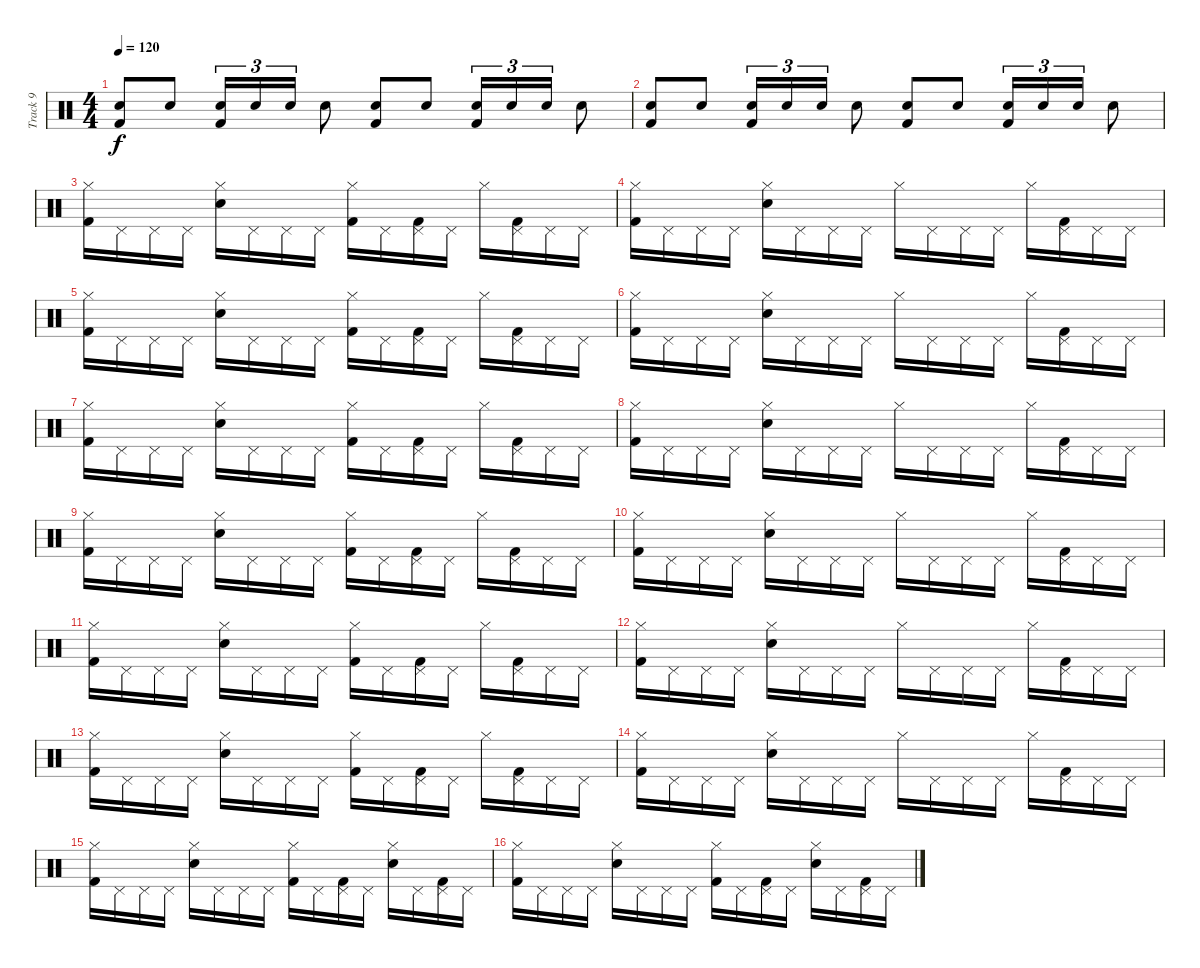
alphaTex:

\track ("Track 9" "Track 9") {instrument percussion}
\staff {score}
\articulation defaults
\ts (4 4)
\tempo 120
\clef neutral
\ks c
("Electric Snare (hit)" "Kick (hit) 2").8{dy f} "Electric Snare (hit)".8 ("Electric Snare (hit)" "Kick (hit) 2").16{tu (3 2)} "Electric Snare (hit)".16{tu (3 2)} "Electric Snare (hit)".16{tu (3 2)} "Electric Snare (hit)".8 ("Electric Snare (hit)" "Kick (hit) 2").8 "Electric Snare (hit)".8 ("Electric Snare (hit)" "Kick (hit) 2").16{tu (3 2)} "Electric Snare (hit)".16{tu (3 2)} "Electric Snare (hit)".16{tu (3 2)} "Electric Snare (hit)".8 |
("Electric Snare (hit)" "Kick (hit) 2").8 "Electric Snare (hit)".8 ("Electric Snare (hit)" "Kick (hit) 2").16{tu (3 2)} "Electric Snare (hit)".16{tu (3 2)} "Electric Snare (hit)".16{tu (3 2)} "Electric Snare (hit)".8 ("Electric Snare (hit)" "Kick (hit) 2").8 "Electric Snare (hit)".8 ("Electric Snare (hit)" "Kick (hit) 2").16{tu (3 2)} "Electric Snare (hit)".16{tu (3 2)} "Electric Snare (hit)".16{tu (3 2)} "Electric Snare (hit)".8 |
("Hi-Hat (closed)" "Kick (hit) 2").16 "Pedal Hi-Hat (hit)".16 "Pedal Hi-Hat (hit)".16 "Pedal Hi-Hat (hit)".16 ("Hi-Hat (closed)" "Electric Snare (hit)").16 "Pedal Hi-Hat (hit)".16 "Pedal Hi-Hat (hit)".16 "Pedal Hi-Hat (hit)".16 ("Hi-Hat (closed)" "Kick (hit) 2").16 "Pedal Hi-Hat (hit)".16 ("Pedal Hi-Hat (hit)" "Kick (hit) 2").16 "Pedal Hi-Hat (hit)".16 "Hi-Hat (closed)".16 ("Pedal Hi-Hat (hit)" "Kick (hit) 2").16 "Pedal Hi-Hat (hit)".16 "Pedal Hi-Hat (hit)".16 |
("Hi-Hat (closed)" "Kick (hit) 2").16 "Pedal Hi-Hat (hit)".16 "Pedal Hi-Hat (hit)".16 "Pedal Hi-Hat (hit)".16 ("Hi-Hat (closed)" "Electric Snare (hit)").16 "Pedal Hi-Hat (hit)".16 "Pedal Hi-Hat (hit)".16 "Pedal Hi-Hat (hit)".16 "Hi-Hat (closed)".16 "Pedal Hi-Hat (hit)".16 "Pedal Hi-Hat (hit)".16 "Pedal Hi-Hat (hit)".16 "Hi-Hat (closed)".16 ("Pedal Hi-Hat (hit)" "Kick (hit) 2").16 "Pedal Hi-Hat (hit)".16 "Pedal Hi-Hat (hit)".16 |
("Hi-Hat (closed)" "Kick (hit) 2").16 "Pedal Hi-Hat (hit)".16 "Pedal Hi-Hat (hit)".16 "Pedal Hi-Hat (hit)".16 ("Hi-Hat (closed)" "Electric Snare (hit)").16 "Pedal Hi-Hat (hit)".16 "Pedal Hi-Hat (hit)".16 "Pedal Hi-Hat (hit)".16 ("Hi-Hat (closed)" "Kick (hit) 2").16 "Pedal Hi-Hat (hit)".16 ("Pedal Hi-Hat (hit)" "Kick (hit) 2").16 "Pedal Hi-Hat (hit)".16 "Hi-Hat (closed)".16 ("Pedal Hi-Hat (hit)" "Kick (hit) 2").16 "Pedal Hi-Hat (hit)".16 "Pedal Hi-Hat (hit)".16 |
("Hi-Hat (closed)" "Kick (hit) 2").16 "Pedal Hi-Hat (hit)".16 "Pedal Hi-Hat (hit)".16 "Pedal Hi-Hat (hit)".16 ("Hi-Hat (closed)" "Electric Snare (hit)").16 "Pedal Hi-Hat (hit)".16 "Pedal Hi-Hat (hit)".16 "Pedal Hi-Hat (hit)".16 "Hi-Hat (closed)".16 "Pedal Hi-Hat (hit)".16 "Pedal Hi-Hat (hit)".16 "Pedal Hi-Hat (hit)".16 "Hi-Hat (closed)".16 ("Pedal Hi-Hat (hit)" "Kick (hit) 2").16 "Pedal Hi-Hat (hit)".16 "Pedal Hi-Hat (hit)".16 |
("Hi-Hat (closed)" "Kick (hit) 2").16 "Pedal Hi-Hat (hit)".16 "Pedal Hi-Hat (hit)".16 "Pedal Hi-Hat (hit)".16 ("Hi-Hat (closed)" "Electric Snare (hit)").16 "Pedal Hi-Hat (hit)".16 "Pedal Hi-Hat (hit)".16 "Pedal Hi-Hat (hit)".16 ("Hi-Hat (closed)" "Kick (hit) 2").16 "Pedal Hi-Hat (hit)".16 ("Pedal Hi-Hat (hit)" "Kick (hit) 2").16 "Pedal Hi-Hat (hit)".16 "Hi-Hat (closed)".16 ("Pedal Hi-Hat (hit)" "Kick (hit) 2").16 "Pedal Hi-Hat (hit)".16 "Pedal Hi-Hat (hit)".16 |
("Hi-Hat (closed)" "Kick (hit) 2").16 "Pedal Hi-Hat (hit)".16 "Pedal Hi-Hat (hit)".16 "Pedal Hi-Hat (hit)".16 ("Hi-Hat (closed)" "Electric Snare (hit)").16 "Pedal Hi-Hat (hit)".16 "Pedal Hi-Hat (hit)".16 "Pedal Hi-Hat (hit)".16 "Hi-Hat (closed)".16 "Pedal Hi-Hat (hit)".16 "Pedal Hi-Hat (hit)".16 "Pedal Hi-Hat (hit)".16 "Hi-Hat (closed)".16 ("Pedal Hi-Hat (hit)" "Kick (hit) 2").16 "Pedal Hi-Hat (hit)".16 "Pedal Hi-Hat (hit)".16 |
("Hi-Hat (closed)" "Kick (hit) 2").16 "Pedal Hi-Hat (hit)".16 "Pedal Hi-Hat (hit)".16 "Pedal Hi-Hat (hit)".16 ("Hi-Hat (closed)" "Electric Snare (hit)").16 "Pedal Hi-Hat (hit)".16 "Pedal Hi-Hat (hit)".16 "Pedal Hi-Hat (hit)".16 ("Hi-Hat (closed)" "Kick (hit) 2").16 "Pedal Hi-Hat (hit)".16 ("Pedal Hi-Hat (hit)" "Kick (hit) 2").16 "Pedal Hi-Hat (hit)".16 "Hi-Hat (closed)".16 ("Pedal Hi-Hat (hit)" "Kick (hit) 2").16 "Pedal Hi-Hat (hit)".16 "Pedal Hi-Hat (hit)".16 |
("Hi-Hat (closed)" "Kick (hit) 2").16 "Pedal Hi-Hat (hit)".16 "Pedal Hi-Hat (hit)".16 "Pedal Hi-Hat (hit)".16 ("Hi-Hat (closed)" "Electric Snare (hit)").16 "Pedal Hi-Hat (hit)".16 "Pedal Hi-Hat (hit)".16 "Pedal Hi-Hat (hit)".16 "Hi-Hat (closed)".16 "Pedal Hi-Hat (hit)".16 "Pedal Hi-Hat (hit)".16 "Pedal Hi-Hat (hit)".16 "Hi-Hat (closed)".16 ("Pedal Hi-Hat (hit)" "Kick (hit) 2").16 "Pedal Hi-Hat (hit)".16 "Pedal Hi-Hat (hit)".16 |
("Hi-Hat (closed)" "Kick (hit) 2").16 "Pedal Hi-Hat (hit)".16 "Pedal Hi-Hat (hit)".16 "Pedal Hi-Hat (hit)".16 ("Hi-Hat (closed)" "Electric Snare (hit)").16 "Pedal Hi-Hat (hit)".16 "Pedal Hi-Hat (hit)".16 "Pedal Hi-Hat (hit)".16 ("Hi-Hat (closed)" "Kick (hit) 2").16 "Pedal Hi-Hat (hit)".16 ("Pedal Hi-Hat (hit)" "Kick (hit) 2").16 "Pedal Hi-Hat (hit)".16 "Hi-Hat (closed)".16 ("Pedal Hi-Hat (hit)" "Kick (hit) 2").16 "Pedal Hi-Hat (hit)".16 "Pedal Hi-Hat (hit)".16 |
("Hi-Hat (closed)" "Kick (hit) 2").16 "Pedal Hi-Hat (hit)".16 "Pedal Hi-Hat (hit)".16 "Pedal Hi-Hat (hit)".16 ("Hi-Hat (closed)" "Electric Snare (hit)").16 "Pedal Hi-Hat (hit)".16 "Pedal Hi-Hat (hit)".16 "Pedal Hi-Hat (hit)".16 "Hi-Hat (closed)".16 "Pedal Hi-Hat (hit)".16 "Pedal Hi-Hat (hit)".16 "Pedal Hi-Hat (hit)".16 "Hi-Hat (closed)".16 ("Pedal Hi-Hat (hit)" "Kick (hit) 2").16 "Pedal Hi-Hat (hit)".16 "Pedal Hi-Hat (hit)".16 |
("Hi-Hat (closed)" "Kick (hit) 2").16 "Pedal Hi-Hat (hit)".16 "Pedal Hi-Hat (hit)".16 "Pedal Hi-Hat (hit)".16 ("Hi-Hat (closed)" "Electric Snare (hit)").16 "Pedal Hi-Hat (hit)".16 "Pedal Hi-Hat (hit)".16 "Pedal Hi-Hat (hit)".16 ("Hi-Hat (closed)" "Kick (hit) 2").16 "Pedal Hi-Hat (hit)".16 ("Pedal Hi-Hat (hit)" "Kick (hit) 2").16 "Pedal Hi-Hat (hit)".16 "Hi-Hat (closed)".16 ("Pedal Hi-Hat (hit)" "Kick (hit) 2").16 "Pedal Hi-Hat (hit)".16 "Pedal Hi-Hat (hit)".16 |
("Hi-Hat (closed)" "Kick (hit) 2").16 "Pedal Hi-Hat (hit)".16 "Pedal Hi-Hat (hit)".16 "Pedal Hi-Hat (hit)".16 ("Hi-Hat (closed)" "Electric Snare (hit)").16 "Pedal Hi-Hat (hit)".16 "Pedal Hi-Hat (hit)".16 "Pedal Hi-Hat (hit)".16 "Hi-Hat (closed)".16 "Pedal Hi-Hat (hit)".16 "Pedal Hi-Hat (hit)".16 "Pedal Hi-Hat (hit)".16 "Hi-Hat (closed)".16 ("Pedal Hi-Hat (hit)" "Kick (hit) 2").16 "Pedal Hi-Hat (hit)".16 "Pedal Hi-Hat (hit)".16 |
("Hi-Hat (closed)" "Kick (hit) 2").16 "Pedal Hi-Hat (hit)".16 "Pedal Hi-Hat (hit)".16 "Pedal Hi-Hat (hit)".16 ("Hi-Hat (closed)" "Electric Snare (hit)").16 "Pedal Hi-Hat (hit)".16 "Pedal Hi-Hat (hit)".16 "Pedal Hi-Hat (hit)".16 ("Hi-Hat (closed)" "Kick (hit) 2").16 "Pedal Hi-Hat (hit)".16 ("Pedal Hi-Hat (hit)" "Kick (hit) 2").16 "Pedal Hi-Hat (hit)".16 ("Hi-Hat (closed)" "Electric Snare (hit)").16 "Pedal Hi-Hat (hit)".16 ("Pedal Hi-Hat (hit)" "Kick (hit) 2").16 "Pedal Hi-Hat (hit)".16 |
("Hi-Hat (closed)" "Kick (hit) 2").16 "Pedal Hi-Hat (hit)".16 "Pedal Hi-Hat (hit)".16 "Pedal Hi-Hat (hit)".16 ("Hi-Hat (closed)" "Electric Snare (hit)").16 "Pedal Hi-Hat (hit)".16 "Pedal Hi-Hat (hit)".16 "Pedal Hi-Hat (hit)".16 ("Hi-Hat (closed)" "Kick (hit) 2").16 "Pedal Hi-Hat (hit)".16 ("Pedal Hi-Hat (hit)" "Kick (hit) 2").16 "Pedal Hi-Hat (hit)".16 ("Hi-Hat (closed)" "Electric Snare (hit)").16 "Pedal Hi-Hat (hit)".16 ("Pedal Hi-Hat (hit)" "Kick (hit) 2").16 "Pedal Hi-Hat (hit)".16
